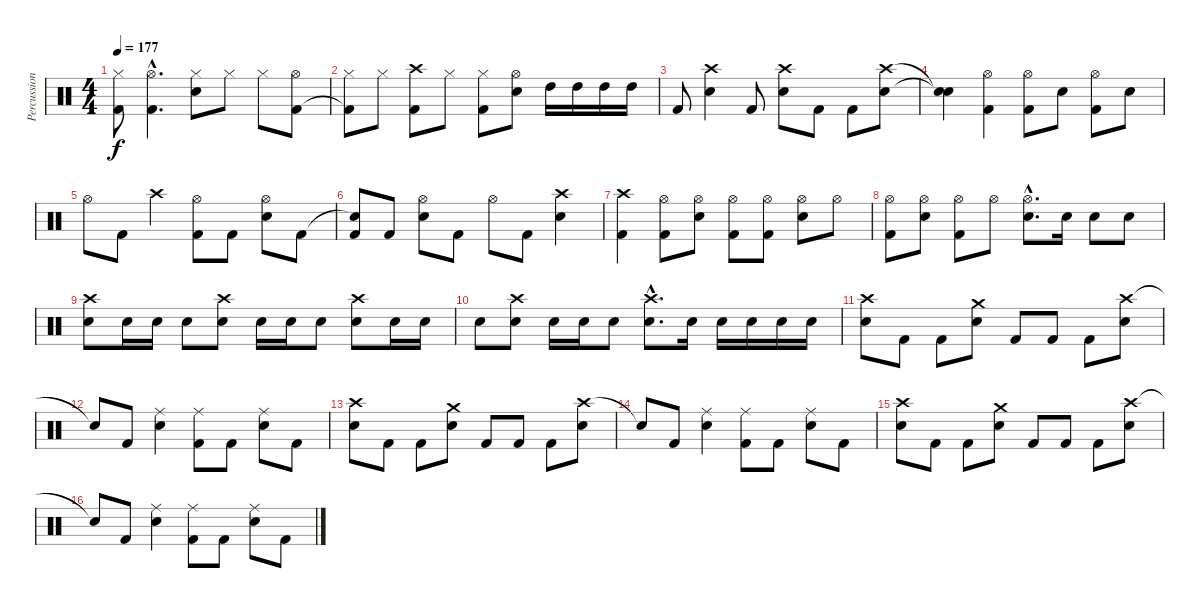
\track ("Percussion" "Percussion") {instrument percussion}
\staff {score}
\articulation defaults
\ts (4 4)
\tempo 177
\clef neutral
\ks c
("Hi-Hat (closed)" "Kick (hit) 2").8{dy f} ("Hi-Hat (open)"{hac} "Kick (hit) 2"{hac}).4{d} ("Hi-Hat (closed)" "Snare (hit) 2").8 "Hi-Hat (closed)".8 "Hi-Hat (closed)".8 ("Hi-Hat (open)" "Kick (hit) 2").8 |
("Hi-Hat (closed)" "Kick (hit) 2"{t}).8 "Hi-Hat (closed)".8 ("Crash high (hit)" "Kick (hit) 2").8 "Hi-Hat (closed)".8 ("Hi-Hat (closed)" "Kick (hit) 2").8 ("Hi-Hat (open)" "Snare (hit) 2").8 "High Tom (hit)".16 "High Tom (hit)".16 "High Tom (hit)".16 "High Tom (hit)".16 |
"Kick (hit) 2".8 ("Crash high (hit)" "Snare (hit) 2").4 "Kick (hit) 2".8 ("Crash high (hit)" "Snare (hit) 2").8 "Kick (hit) 2".8 "Kick (hit) 2".8 ("Crash high (hit)" "Snare (hit) 2").8 |
("Snare (hit)"{t} "Snare (hit)"{t}).4 ("Hi-Hat (open)" "Kick (hit) 2").4 ("Hi-Hat (open)" "Kick (hit) 2").8 "Snare (hit) 2".8 ("Hi-Hat (open)" "Kick (hit) 2").8 "Snare (hit) 2".8 |
"Hi-Hat (open)".8 "Kick (hit) 2".8 "Crash high (hit)".4 ("Hi-Hat (open)" "Kick (hit) 2").8 "Kick (hit) 2".8 ("Hi-Hat (open)" "Snare (hit) 2").8 "Kick (hit) 2".8 |
("Snare (hit)"{t} "Kick (hit) 2").8 "Kick (hit) 2".8 ("Hi-Hat (open)" "Snare (hit) 2").8 "Kick (hit) 2".8 "Hi-Hat (open)".8 "Kick (hit) 2".8 ("Crash high (hit)" "Snare (hit) 2").4 |
("Crash high (hit)" "Kick (hit) 2").4 ("Hi-Hat (open)" "Kick (hit) 2").8 ("Hi-Hat (open)" "Snare (hit) 2").8 ("Hi-Hat (open)" "Kick (hit) 2").8 ("Hi-Hat (open)" "Kick (hit) 2").8 ("Hi-Hat (open)" "Snare (hit) 2").8 "Hi-Hat (open)".8 |
("Hi-Hat (open)" "Kick (hit) 2").8 ("Hi-Hat (open)" "Snare (hit) 2").8 ("Hi-Hat (open)" "Kick (hit) 2").8 "Hi-Hat (open)".8 ("Hi-Hat (open)"{hac} "Snare (hit) 2"{hac}).8{d} "Snare (hit) 2".16 "Snare (hit) 2".8 "Snare (hit) 2".8 |
("Crash high (hit)" "Snare (hit) 2").8 "Snare (hit) 2".16 "Snare (hit) 2".16 "Snare (hit) 2".8 ("Crash high (hit)" "Snare (hit) 2").8 "Snare (hit) 2".16 "Snare (hit) 2".16 "Snare (hit) 2".8 ("Crash high (hit)" "Snare (hit) 2").8 "Snare (hit) 2".16 "Snare (hit) 2".16 |
"Snare (hit) 2".8 ("Crash high (hit)" "Snare (hit) 2").8 "Snare (hit) 2".16 "Snare (hit) 2".16 "Snare (hit) 2".8 ("Crash high (hit)"{hac} "Snare (hit) 2"{hac}).8{d} "Snare (hit) 2".16 "Snare (hit) 2".16 "Snare (hit) 2".16 "Snare (hit) 2".16 "Snare (hit) 2".16 |
("Crash high (hit)" "Snare (hit) 2").8 "Kick (hit) 2".8 "Kick (hit) 2".8 ("Crash medium (hit)" "Snare (hit) 2").8 "Kick (hit) 2".8 "Kick (hit) 2".8 "Kick (hit) 2".8 ("Crash high (hit)" "Snare (hit) 2").8 |
"Snare (hit)"{t}.8 "Kick (hit) 2".8 ("Ride (middle)" "Snare (hit) 2").4 ("Ride (middle)" "Kick (hit) 2").8 "Kick (hit) 2".8 ("Ride (middle)" "Snare (hit) 2").8 "Kick (hit) 2".8 |
("Crash high (hit)" "Snare (hit) 2").8 "Kick (hit) 2".8 "Kick (hit) 2".8 ("Crash medium (hit)" "Snare (hit) 2").8 "Kick (hit) 2".8 "Kick (hit) 2".8 "Kick (hit) 2".8 ("Crash high (hit)" "Snare (hit) 2").8 |
"Snare (hit)"{t}.8 "Kick (hit) 2".8 ("Ride (middle)" "Snare (hit) 2").4 ("Ride (middle)" "Kick (hit) 2").8 "Kick (hit) 2".8 ("Ride (middle)" "Snare (hit) 2").8 "Kick (hit) 2".8 |
("Crash high (hit)" "Snare (hit) 2").8 "Kick (hit) 2".8 "Kick (hit) 2".8 ("Crash medium (hit)" "Snare (hit) 2").8 "Kick (hit) 2".8 "Kick (hit) 2".8 "Kick (hit) 2".8 ("Crash high (hit)" "Snare (hit) 2").8 |
"Snare (hit)"{t}.8 "Kick (hit) 2".8 ("Ride (middle)" "Snare (hit) 2").4 ("Ride (middle)" "Kick (hit) 2").8 "Kick (hit) 2".8 ("Ride (middle)" "Snare (hit) 2").8 "Kick (hit) 2".8
